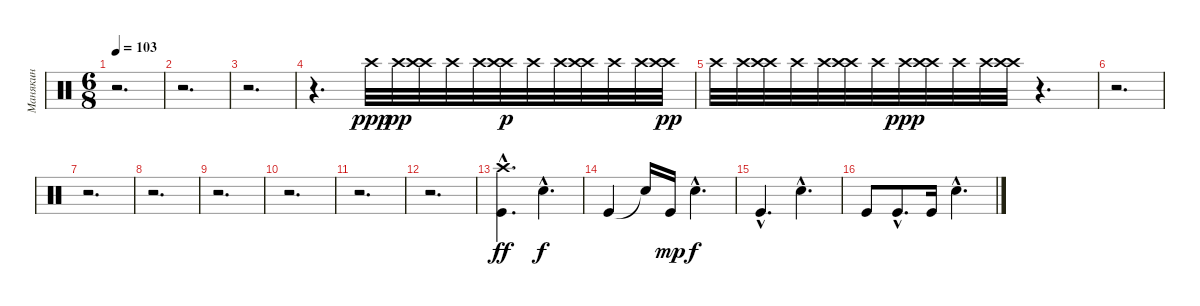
\track ("Манякин" "Манякин") {instrument percussion}
\staff {score}
\articulation defaults
\ts (6 8)
\tempo 103
\clef neutral
\ks c
r.2{d dy ppp} |
r.2{d} |
r.2{d} |
r.4{d} "Crash high (hit)".32 "Crash high (hit)".32{dy pp} ("Crash high (hit)" "Crash high (hit)").32 "Crash high (hit)".32 "Crash high (hit)".32 ("Crash high (hit)" "Crash high (hit)").32{dy p} "Crash high (hit)".32 "Crash high (hit)".32 ("Crash high (hit)" "Crash high (hit)").32 "Crash high (hit)".32 "Crash high (hit)".32 ("Crash high (hit)" "Crash high (hit)").32{dy pp} |
"Crash high (hit)".32 "Crash high (hit)".32 ("Crash high (hit)" "Crash high (hit)").32 "Crash high (hit)".32 "Crash high (hit)".32 ("Crash high (hit)" "Crash high (hit)").32 "Crash high (hit)".32 "Crash high (hit)".32{dy ppp} ("Crash high (hit)" "Crash high (hit)").32 "Crash high (hit)".32 "Crash high (hit)".32 ("Crash high (hit)" "Crash high (hit)").32 r.4{d} |
r.2{d} |
r.2{d} |
r.2{d} |
r.2{d} |
r.2{d} |
r.2{d} |
r.2{d} |
("Crash high (hit)"{hac} "Kick (hit)"{hac}).4{d dy ff} "Electric Snare (hit)"{hac}.4{d dy f} |
"Kick (hit)".4 "Snare (hit)"{t}.16 "Kick (hit)".16{dy mp} "Electric Snare (hit)"{hac}.4{d dy f} |
"Kick (hit)"{hac}.4{d} "Electric Snare (hit)"{hac}.4{d} |
"Kick (hit)".8 "Kick (hit)"{hac}.8{d} "Kick (hit)".16 "Electric Snare (hit)"{hac}.4{d}
